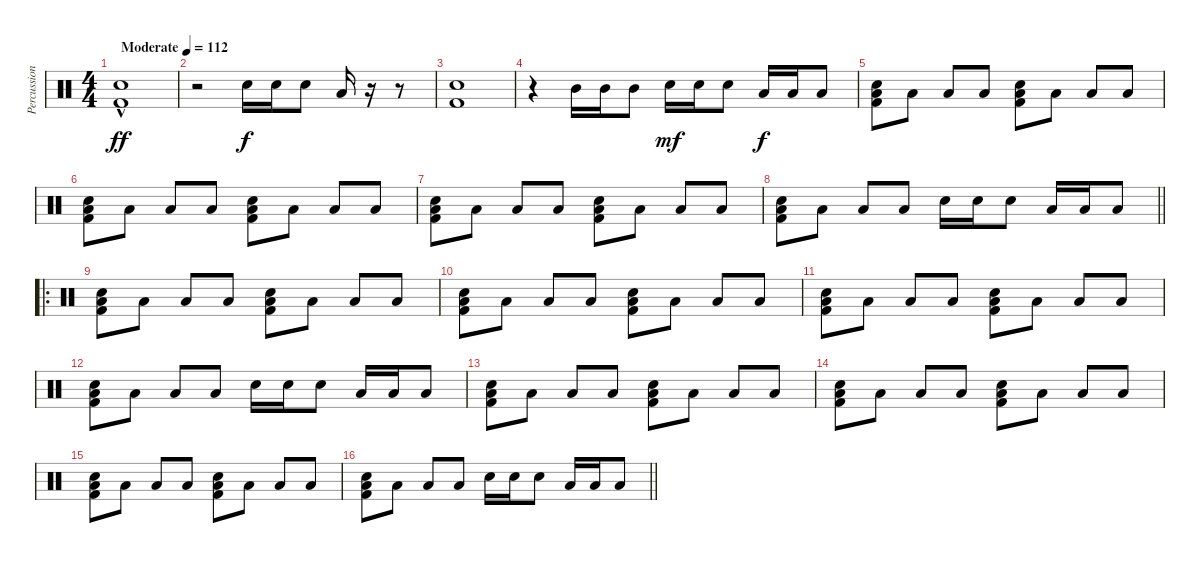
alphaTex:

\track ("Percussion" "Percussion") {instrument percussion}
\staff {score}
\articulation defaults
\ts (4 4)
\tempo (112 "Moderate")
\clef neutral
\ks c
("Snare (hit) 2"{hac} "Kick (hit) 2"{hac}).1{dy ff} |
r.2 "Snare (hit) 2".16{dy f} "Snare (hit) 2".16 "Snare (hit) 2".8 "Low Tom (hit)".16 r.16 r.8 |
("Snare (hit) 2" "Kick (hit) 2").1 |
r.4 "Mid Tom (hit)".16 "Mid Tom (hit)".16 "Mid Tom (hit)".8 "Snare (hit) 2".16{dy mf} "Snare (hit) 2".16 "Snare (hit) 2".8 "Low Tom (hit)".16{dy f} "Low Tom (hit)".16 "Low Tom (hit)".8 |
("Snare (hit) 2" "Low Floor Tom (hit)" "Kick (hit) 2").8 "Low Floor Tom (hit)".8 "Low Floor Tom (hit)".8 "Low Floor Tom (hit)".8 ("Snare (hit) 2" "Low Floor Tom (hit)" "Kick (hit) 2").8 "Low Floor Tom (hit)".8 "Low Floor Tom (hit)".8 "Low Floor Tom (hit)".8 |
("Snare (hit) 2" "Low Floor Tom (hit)" "Kick (hit) 2").8 "Low Floor Tom (hit)".8 "Low Floor Tom (hit)".8 "Low Floor Tom (hit)".8 ("Snare (hit) 2" "Low Floor Tom (hit)" "Kick (hit) 2").8 "Low Floor Tom (hit)".8 "Low Floor Tom (hit)".8 "Low Floor Tom (hit)".8 |
("Snare (hit) 2" "Low Floor Tom (hit)" "Kick (hit) 2").8 "Low Floor Tom (hit)".8 "Low Floor Tom (hit)".8 "Low Floor Tom (hit)".8 ("Snare (hit) 2" "Low Floor Tom (hit)" "Kick (hit) 2").8 "Low Floor Tom (hit)".8 "Low Floor Tom (hit)".8 "Low Floor Tom (hit)".8 |
\barLineRight lightlight
("Snare (hit) 2" "Low Floor Tom (hit)" "Kick (hit) 2").8 "Low Floor Tom (hit)".8 "Low Floor Tom (hit)".8 "Low Floor Tom (hit)".8 "Snare (hit) 2".16 "Snare (hit) 2".16 "Snare (hit) 2".8 "Low Tom (hit)".16 "Low Tom (hit)".16 "Low Tom (hit)".8 |
\ro
("Snare (hit) 2" "Low Floor Tom (hit)" "Kick (hit) 2").8 "Low Floor Tom (hit)".8 "Low Floor Tom (hit)".8 "Low Floor Tom (hit)".8 ("Snare (hit) 2" "Low Floor Tom (hit)" "Kick (hit) 2").8 "Low Floor Tom (hit)".8 "Low Floor Tom (hit)".8 "Low Floor Tom (hit)".8 |
("Snare (hit) 2" "Low Floor Tom (hit)" "Kick (hit) 2").8 "Low Floor Tom (hit)".8 "Low Floor Tom (hit)".8 "Low Floor Tom (hit)".8 ("Snare (hit) 2" "Low Floor Tom (hit)" "Kick (hit) 2").8 "Low Floor Tom (hit)".8 "Low Floor Tom (hit)".8 "Low Floor Tom (hit)".8 |
("Snare (hit) 2" "Low Floor Tom (hit)" "Kick (hit) 2").8 "Low Floor Tom (hit)".8 "Low Floor Tom (hit)".8 "Low Floor Tom (hit)".8 ("Snare (hit) 2" "Low Floor Tom (hit)" "Kick (hit) 2").8 "Low Floor Tom (hit)".8 "Low Floor Tom (hit)".8 "Low Floor Tom (hit)".8 |
("Snare (hit) 2" "Low Floor Tom (hit)" "Kick (hit) 2").8 "Low Floor Tom (hit)".8 "Low Floor Tom (hit)".8 "Low Floor Tom (hit)".8 "Snare (hit) 2".16 "Snare (hit) 2".16 "Snare (hit) 2".8 "Low Tom (hit)".16 "Low Tom (hit)".16 "Low Tom (hit)".8 |
("Snare (hit) 2" "Low Floor Tom (hit)" "Kick (hit) 2").8 "Low Floor Tom (hit)".8 "Low Floor Tom (hit)".8 "Low Floor Tom (hit)".8 ("Snare (hit) 2" "Low Floor Tom (hit)" "Kick (hit) 2").8 "Low Floor Tom (hit)".8 "Low Floor Tom (hit)".8 "Low Floor Tom (hit)".8 |
("Snare (hit) 2" "Low Floor Tom (hit)" "Kick (hit) 2").8 "Low Floor Tom (hit)".8 "Low Floor Tom (hit)".8 "Low Floor Tom (hit)".8 ("Snare (hit) 2" "Low Floor Tom (hit)" "Kick (hit) 2").8 "Low Floor Tom (hit)".8 "Low Floor Tom (hit)".8 "Low Floor Tom (hit)".8 |
("Snare (hit) 2" "Low Floor Tom (hit)" "Kick (hit) 2").8 "Low Floor Tom (hit)".8 "Low Floor Tom (hit)".8 "Low Floor Tom (hit)".8 ("Snare (hit) 2" "Low Floor Tom (hit)" "Kick (hit) 2").8 "Low Floor Tom (hit)".8 "Low Floor Tom (hit)".8 "Low Floor Tom (hit)".8 |
\barLineRight lightlight
("Snare (hit) 2" "Low Floor Tom (hit)" "Kick (hit) 2").8 "Low Floor Tom (hit)".8 "Low Floor Tom (hit)".8 "Low Floor Tom (hit)".8 "Snare (hit) 2".16 "Snare (hit) 2".16 "Snare (hit) 2".8 "Low Tom (hit)".16 "Low Tom (hit)".16 "Low Tom (hit)".8
